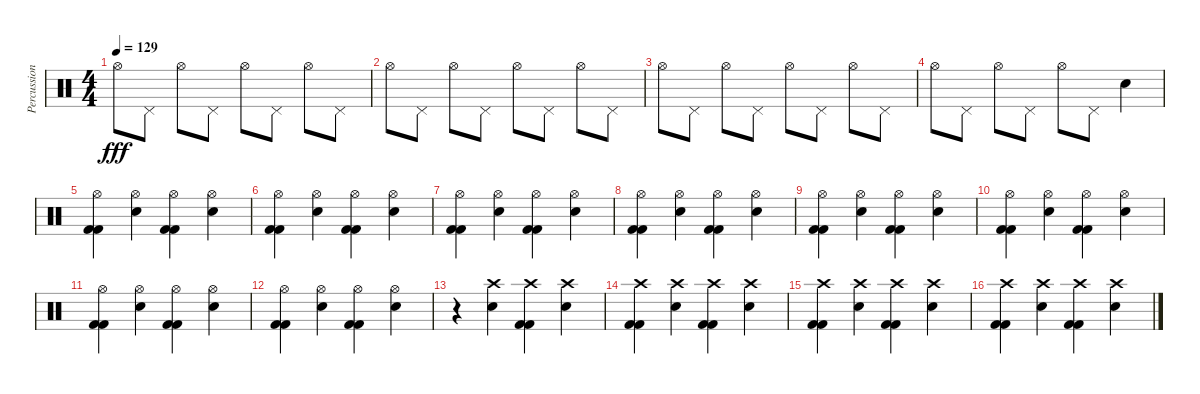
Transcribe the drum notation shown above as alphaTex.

\track ("Percussioni" "Percussion") {instrument percussion}
\staff {score}
\articulation defaults
\ts (4 4)
\tempo 129
\clef neutral
\ks c "Hi-Hat (open)".8{dy fff} "Pedal Hi-Hat (hit)".8 "Hi-Hat (open)".8 "Pedal Hi-Hat (hit)".8 "Hi-Hat (open)".8 "Pedal Hi-Hat (hit)".8 "Hi-Hat (open)".8 "Pedal Hi-Hat (hit)".8
|
"Hi-Hat (open)".8 "Pedal Hi-Hat (hit)".8 "Hi-Hat (open)".8 "Pedal Hi-Hat (hit)".8 "Hi-Hat (open)".8 "Pedal Hi-Hat (hit)".8 "Hi-Hat (open)".8 "Pedal Hi-Hat (hit)".8 |
"Hi-Hat (open)".8 "Pedal Hi-Hat (hit)".8 "Hi-Hat (open)".8 "Pedal Hi-Hat (hit)".8 "Hi-Hat (open)".8 "Pedal Hi-Hat (hit)".8 "Hi-Hat (open)".8 "Pedal Hi-Hat (hit)".8 |
"Hi-Hat (open)".8 "Pedal Hi-Hat (hit)".8 "Hi-Hat (open)".8 "Pedal Hi-Hat (hit)".8 "Hi-Hat (open)".8 "Pedal Hi-Hat (hit)".8 "Snare (hit) 2".4 |
("Hi-Hat (open)" "Kick (hit) 2" "Kick (hit) 2").4 ("Hi-Hat (open)" "Snare (hit) 2").4 ("Hi-Hat (open)" "Kick (hit) 2" "Kick (hit) 2").4 ("Hi-Hat (open)" "Snare (hit) 2").4 |
("Hi-Hat (open)" "Kick (hit) 2" "Kick (hit) 2").4 ("Hi-Hat (open)" "Snare (hit) 2").4 ("Hi-Hat (open)" "Kick (hit) 2" "Kick (hit) 2").4 ("Hi-Hat (open)" "Snare (hit) 2").4 |
("Hi-Hat (open)" "Kick (hit) 2" "Kick (hit) 2").4 ("Hi-Hat (open)" "Snare (hit) 2").4 ("Hi-Hat (open)" "Kick (hit) 2" "Kick (hit) 2").4 ("Hi-Hat (open)" "Snare (hit) 2").4 |
("Hi-Hat (open)" "Kick (hit) 2" "Kick (hit) 2").4 ("Hi-Hat (open)" "Snare (hit) 2").4 ("Hi-Hat (open)" "Kick (hit) 2" "Kick (hit) 2").4 ("Hi-Hat (open)" "Snare (hit) 2").4 |
("Hi-Hat (open)" "Kick (hit) 2" "Kick (hit) 2").4 ("Hi-Hat (open)" "Snare (hit) 2").4 ("Hi-Hat (open)" "Kick (hit) 2" "Kick (hit) 2").4 ("Hi-Hat (open)" "Snare (hit) 2").4 |
("Hi-Hat (open)" "Kick (hit) 2" "Kick (hit) 2").4 ("Hi-Hat (open)" "Snare (hit) 2").4 ("Hi-Hat (open)" "Kick (hit) 2" "Kick (hit) 2").4 ("Hi-Hat (open)" "Snare (hit) 2").4 |
("Hi-Hat (open)" "Kick (hit) 2" "Kick (hit) 2").4 ("Hi-Hat (open)" "Snare (hit) 2").4 ("Hi-Hat (open)" "Kick (hit) 2" "Kick (hit) 2").4 ("Hi-Hat (open)" "Snare (hit) 2").4 |
("Hi-Hat (open)" "Kick (hit) 2" "Kick (hit) 2").4 ("Hi-Hat (open)" "Snare (hit) 2").4 ("Hi-Hat (open)" "Kick (hit) 2" "Kick (hit) 2").4 ("Hi-Hat (open)" "Snare (hit) 2").4 |
r.4 ("Crash high (hit)" "Snare (hit) 2").4 ("Crash high (hit)" "Kick (hit) 2" "Kick (hit) 2").4 ("Crash high (hit)" "Snare (hit) 2").4 |
("Crash high (hit)" "Kick (hit) 2" "Kick (hit) 2").4 ("Crash high (hit)" "Snare (hit) 2").4 ("Crash high (hit)" "Kick (hit) 2" "Kick (hit) 2").4 ("Crash high (hit)" "Snare (hit) 2").4 |
("Crash high (hit)" "Kick (hit) 2" "Kick (hit) 2").4 ("Crash high (hit)" "Snare (hit) 2").4 ("Crash high (hit)" "Kick (hit) 2" "Kick (hit) 2").4 ("Crash high (hit)" "Snare (hit) 2").4 |
("Crash high (hit)" "Kick (hit) 2" "Kick (hit) 2").4 ("Crash high (hit)" "Snare (hit) 2").4 ("Crash high (hit)" "Kick (hit) 2" "Kick (hit) 2").4 ("Crash high (hit)" "Snare (hit) 2").4
